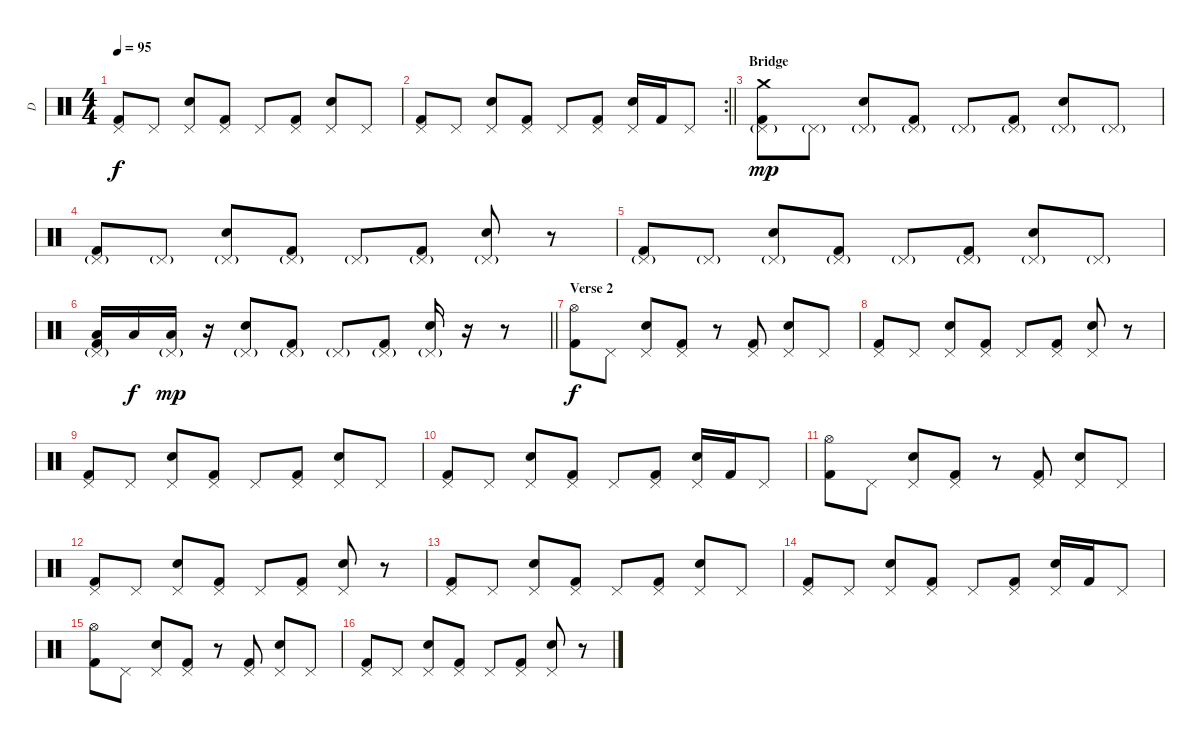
\track ("D" "D") {instrument percussion}
\staff {score}
\articulation defaults
\ts (4 4)
\tempo 95
\clef neutral
\ks c
("Kick (hit) 2" "Pedal Hi-Hat (hit)").8{dy f} "Pedal Hi-Hat (hit)".8 ("Electric Snare (hit)" "Pedal Hi-Hat (hit)").8 ("Kick (hit) 2" "Pedal Hi-Hat (hit)").8 "Pedal Hi-Hat (hit)".8 ("Kick (hit) 2" "Pedal Hi-Hat (hit)").8 ("Electric Snare (hit)" "Pedal Hi-Hat (hit)").8 "Pedal Hi-Hat (hit)".8 |
\rc 2
\barLineRight lightlight
("Kick (hit) 2" "Pedal Hi-Hat (hit)").8 "Pedal Hi-Hat (hit)".8 ("Electric Snare (hit)" "Pedal Hi-Hat (hit)").8 ("Kick (hit) 2" "Pedal Hi-Hat (hit)").8 "Pedal Hi-Hat (hit)".8 ("Kick (hit) 2" "Pedal Hi-Hat (hit)").8 ("Electric Snare (hit)" "Pedal Hi-Hat (hit)").16 "Kick (hit) 2".16 "Pedal Hi-Hat (hit)".8 |
\section ("" "Bridge")
("Crash medium (hit)" "Kick (hit) 2" "Pedal Hi-Hat (hit)"{g}).8{dy mp} "Pedal Hi-Hat (hit)"{g}.8 ("Electric Snare (hit)" "Pedal Hi-Hat (hit)"{g}).8 ("Kick (hit) 2" "Pedal Hi-Hat (hit)"{g}).8 "Pedal Hi-Hat (hit)"{g}.8 ("Kick (hit) 2" "Pedal Hi-Hat (hit)"{g}).8 ("Electric Snare (hit)" "Pedal Hi-Hat (hit)"{g}).8 "Pedal Hi-Hat (hit)"{g}.8 |
("Kick (hit) 2" "Pedal Hi-Hat (hit)"{g}).8 "Pedal Hi-Hat (hit)"{g}.8 ("Electric Snare (hit)" "Pedal Hi-Hat (hit)"{g}).8 ("Kick (hit) 2" "Pedal Hi-Hat (hit)"{g}).8 "Pedal Hi-Hat (hit)"{g}.8 ("Kick (hit) 2" "Pedal Hi-Hat (hit)"{g}).8 ("Electric Snare (hit)" "Pedal Hi-Hat (hit)"{g}).8 r.8 |
("Kick (hit) 2" "Pedal Hi-Hat (hit)"{g}).8 "Pedal Hi-Hat (hit)"{g}.8 ("Electric Snare (hit)" "Pedal Hi-Hat (hit)"{g}).8 ("Kick (hit) 2" "Pedal Hi-Hat (hit)"{g}).8 "Pedal Hi-Hat (hit)"{g}.8 ("Kick (hit) 2" "Pedal Hi-Hat (hit)"{g}).8 ("Electric Snare (hit)" "Pedal Hi-Hat (hit)"{g}).8 "Pedal Hi-Hat (hit)"{g}.8 |
\barLineRight lightlight
("Low Tom (hit)" "Kick (hit) 2" "Pedal Hi-Hat (hit)"{g}).16 "Low Tom (hit)".16{dy f} ("Low Tom (hit)" "Pedal Hi-Hat (hit)"{g}).16{dy mp} r.16 ("Electric Snare (hit)" "Pedal Hi-Hat (hit)"{g}).8 ("Kick (hit) 2" "Pedal Hi-Hat (hit)"{g}).8 "Pedal Hi-Hat (hit)"{g}.8 ("Kick (hit) 2" "Pedal Hi-Hat (hit)"{g}).8 ("Electric Snare (hit)" "Pedal Hi-Hat (hit)"{g}).16 r.16 r.8 |
\section ("" "Verse 2")
("Hi-Hat (open)" "Kick (hit) 2").8{dy f} "Pedal Hi-Hat (hit)".8 ("Electric Snare (hit)" "Pedal Hi-Hat (hit)").8 ("Kick (hit) 2" "Pedal Hi-Hat (hit)").8 r.8 ("Kick (hit) 2" "Pedal Hi-Hat (hit)").8 ("Electric Snare (hit)" "Pedal Hi-Hat (hit)").8 "Pedal Hi-Hat (hit)".8 |
("Kick (hit) 2" "Pedal Hi-Hat (hit)").8 "Pedal Hi-Hat (hit)".8 ("Electric Snare (hit)" "Pedal Hi-Hat (hit)").8 ("Kick (hit) 2" "Pedal Hi-Hat (hit)").8 "Pedal Hi-Hat (hit)".8 ("Kick (hit) 2" "Pedal Hi-Hat (hit)").8 ("Electric Snare (hit)" "Pedal Hi-Hat (hit)").8 r.8 |
("Kick (hit) 2" "Pedal Hi-Hat (hit)").8 "Pedal Hi-Hat (hit)".8 ("Electric Snare (hit)" "Pedal Hi-Hat (hit)").8 ("Kick (hit) 2" "Pedal Hi-Hat (hit)").8 "Pedal Hi-Hat (hit)".8 ("Kick (hit) 2" "Pedal Hi-Hat (hit)").8 ("Electric Snare (hit)" "Pedal Hi-Hat (hit)").8 "Pedal Hi-Hat (hit)".8 |
("Kick (hit) 2" "Pedal Hi-Hat (hit)").8 "Pedal Hi-Hat (hit)".8 ("Electric Snare (hit)" "Pedal Hi-Hat (hit)").8 ("Kick (hit) 2" "Pedal Hi-Hat (hit)").8 "Pedal Hi-Hat (hit)".8 ("Kick (hit) 2" "Pedal Hi-Hat (hit)").8 ("Electric Snare (hit)" "Pedal Hi-Hat (hit)").16 "Kick (hit) 2".16 "Pedal Hi-Hat (hit)".8 |
("Hi-Hat (open)" "Kick (hit) 2").8 "Pedal Hi-Hat (hit)".8 ("Electric Snare (hit)" "Pedal Hi-Hat (hit)").8 ("Kick (hit) 2" "Pedal Hi-Hat (hit)").8 r.8 ("Kick (hit) 2" "Pedal Hi-Hat (hit)").8 ("Electric Snare (hit)" "Pedal Hi-Hat (hit)").8 "Pedal Hi-Hat (hit)".8 |
("Kick (hit) 2" "Pedal Hi-Hat (hit)").8 "Pedal Hi-Hat (hit)".8 ("Electric Snare (hit)" "Pedal Hi-Hat (hit)").8 ("Kick (hit) 2" "Pedal Hi-Hat (hit)").8 "Pedal Hi-Hat (hit)".8 ("Kick (hit) 2" "Pedal Hi-Hat (hit)").8 ("Electric Snare (hit)" "Pedal Hi-Hat (hit)").8 r.8 |
("Kick (hit) 2" "Pedal Hi-Hat (hit)").8 "Pedal Hi-Hat (hit)".8 ("Electric Snare (hit)" "Pedal Hi-Hat (hit)").8 ("Kick (hit) 2" "Pedal Hi-Hat (hit)").8 "Pedal Hi-Hat (hit)".8 ("Kick (hit) 2" "Pedal Hi-Hat (hit)").8 ("Electric Snare (hit)" "Pedal Hi-Hat (hit)").8 "Pedal Hi-Hat (hit)".8 |
("Kick (hit) 2" "Pedal Hi-Hat (hit)").8 "Pedal Hi-Hat (hit)".8 ("Electric Snare (hit)" "Pedal Hi-Hat (hit)").8 ("Kick (hit) 2" "Pedal Hi-Hat (hit)").8 "Pedal Hi-Hat (hit)".8 ("Kick (hit) 2" "Pedal Hi-Hat (hit)").8 ("Electric Snare (hit)" "Pedal Hi-Hat (hit)").16 "Kick (hit) 2".16 "Pedal Hi-Hat (hit)".8 |
("Hi-Hat (open)" "Kick (hit) 2").8 "Pedal Hi-Hat (hit)".8 ("Electric Snare (hit)" "Pedal Hi-Hat (hit)").8 ("Kick (hit) 2" "Pedal Hi-Hat (hit)").8 r.8 ("Kick (hit) 2" "Pedal Hi-Hat (hit)").8 ("Electric Snare (hit)" "Pedal Hi-Hat (hit)").8 "Pedal Hi-Hat (hit)".8 |
("Kick (hit) 2" "Pedal Hi-Hat (hit)").8 "Pedal Hi-Hat (hit)".8 ("Electric Snare (hit)" "Pedal Hi-Hat (hit)").8 ("Kick (hit) 2" "Pedal Hi-Hat (hit)").8 "Pedal Hi-Hat (hit)".8 ("Kick (hit) 2" "Pedal Hi-Hat (hit)").8 ("Electric Snare (hit)" "Pedal Hi-Hat (hit)").8 r.8
